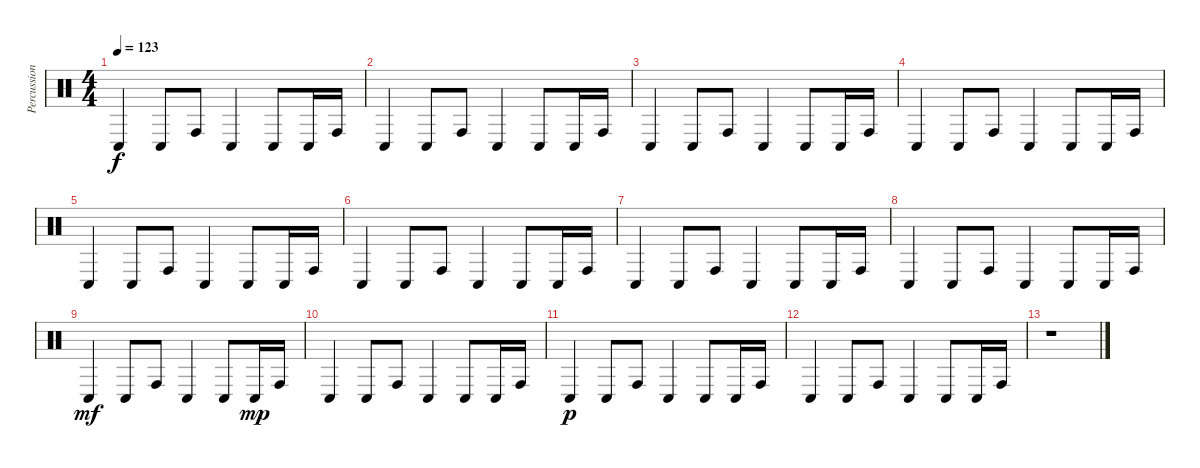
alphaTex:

\track ("Percussion" "Percussion") {instrument percussion}
\staff {score}
\articulation defaults
\ts (4 4)
\tempo 123
\clef neutral
\ks c "Conga low (hit)".4{dy f} "Conga low (hit)".8 "Conga high (hit)".8 "Conga low (hit)".4 "Conga low (hit)".8 "Conga low (hit)".16 "Conga high (hit)".16
|
"Conga low (hit)".4 "Conga low (hit)".8 "Conga high (hit)".8 "Conga low (hit)".4 "Conga low (hit)".8 "Conga low (hit)".16 "Conga high (hit)".16 |
"Conga low (hit)".4 "Conga low (hit)".8 "Conga high (hit)".8 "Conga low (hit)".4 "Conga low (hit)".8 "Conga low (hit)".16 "Conga high (hit)".16 |
"Conga low (hit)".4 "Conga low (hit)".8 "Conga high (hit)".8 "Conga low (hit)".4 "Conga low (hit)".8 "Conga low (hit)".16 "Conga high (hit)".16 |
"Conga low (hit)".4 "Conga low (hit)".8 "Conga high (hit)".8 "Conga low (hit)".4 "Conga low (hit)".8 "Conga low (hit)".16 "Conga high (hit)".16 |
"Conga low (hit)".4 "Conga low (hit)".8 "Conga high (hit)".8 "Conga low (hit)".4 "Conga low (hit)".8 "Conga low (hit)".16 "Conga high (hit)".16 |
"Conga low (hit)".4 "Conga low (hit)".8 "Conga high (hit)".8 "Conga low (hit)".4 "Conga low (hit)".8 "Conga low (hit)".16 "Conga high (hit)".16 |
"Conga low (hit)".4 "Conga low (hit)".8 "Conga high (hit)".8 "Conga low (hit)".4 "Conga low (hit)".8 "Conga low (hit)".16 "Conga high (hit)".16 |
"Conga low (hit)".4{dy mf} "Conga low (hit)".8 "Conga high (hit)".8 "Conga low (hit)".4 "Conga low (hit)".8 "Conga low (hit)".16{dy mp} "Conga high (hit)".16 |
"Conga low (hit)".4 "Conga low (hit)".8 "Conga high (hit)".8 "Conga low (hit)".4 "Conga low (hit)".8 "Conga low (hit)".16 "Conga high (hit)".16 |
"Conga low (hit)".4{dy p} "Conga low (hit)".8 "Conga high (hit)".8 "Conga low (hit)".4 "Conga low (hit)".8 "Conga low (hit)".16 "Conga high (hit)".16 |
"Conga low (hit)".4 "Conga low (hit)".8 "Conga high (hit)".8 "Conga low (hit)".4 "Conga low (hit)".8 "Conga low (hit)".16 "Conga high (hit)".16 |
r.1
